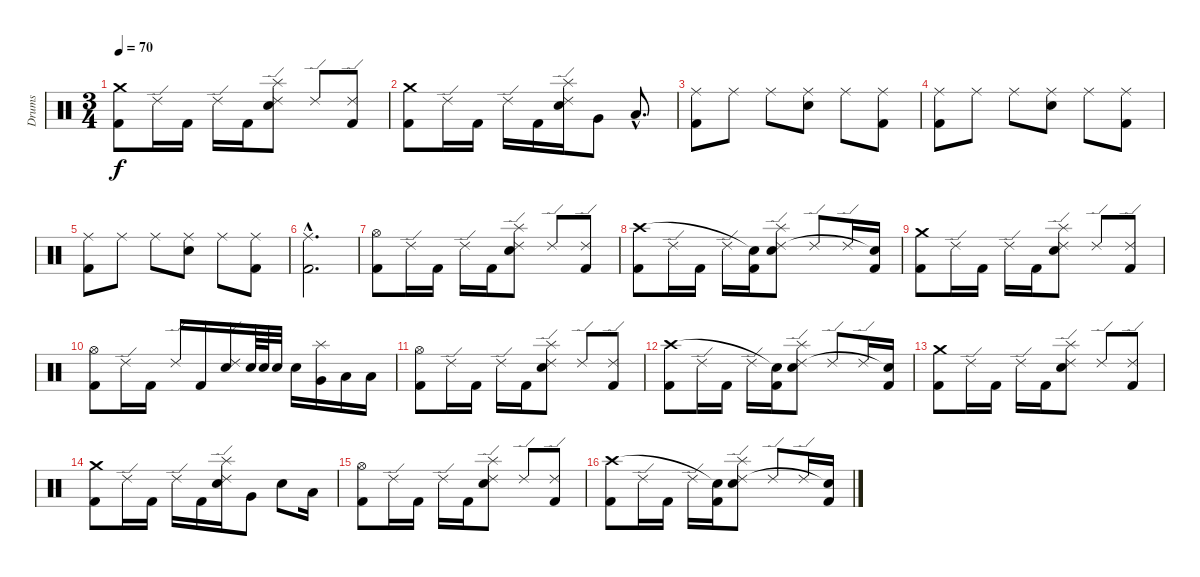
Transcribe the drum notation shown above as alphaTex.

\track ("Drums" "Drums") {instrument percussion}
\staff {score}
\articulation defaults
\ts (3 4)
\tempo 70
\clef neutral
\ks c
("Kick (hit) 2" "Crash medium (hit)").8{dy f} "Ride (edge) 2".16 "Kick (hit) 2".16 "Ride (edge) 2".16 "Kick (hit) 2".16 ("Snare (hit) 2" "Ride (edge) 2" "Splash (hit)").8 "Ride (edge) 2".8 ("Kick (hit) 2" "Ride (edge) 2").8 |
("Kick (hit) 2" "Crash medium (hit)").8 "Ride (edge) 2".16 "Kick (hit) 2".16 "Ride (edge) 2".16 "Kick (hit) 2".16 ("Snare (hit) 2" "Ride (edge) 2" "Splash (hit)").16 "Very Low Tom (hit)".8 "Low Floor Tom (hit)"{hac}.8{d} |
("Kick (hit) 2" "Ride (middle)").8 "Ride (middle)".8 "Ride (middle)".8 ("Snare (hit) 2" "Ride (middle)").8 "Ride (middle)".8 ("Kick (hit) 2" "Ride (middle)").8 |
("Kick (hit) 2" "Ride (middle)").8 "Ride (middle)".8 "Ride (middle)".8 ("Snare (hit) 2" "Ride (middle)").8 "Ride (middle)".8 ("Kick (hit) 2" "Ride (middle)").8 |
("Kick (hit) 2" "Ride (middle)").8 "Ride (middle)".8 "Ride (middle)".8 ("Snare (hit) 2" "Ride (middle)").8 "Ride (middle)".8 ("Kick (hit) 2" "Ride (middle)").8 |
("Kick (hit) 2"{hac} "Ride (middle)"{hac}).2{d} |
("Kick (hit) 2" "Hi-Hat (open)").8 "Ride (edge) 2".16 "Kick (hit) 2".16 "Ride (edge) 2".16 "Kick (hit) 2".16 ("Snare (hit) 2" "Ride (edge) 2" "Splash (hit)").8 "Ride (edge) 2".8 ("Kick (hit) 2" "Ride (edge) 2").8 |
("Kick (hit) 2" "Crash high (hit)").8 "Ride (edge) 2".16 "Kick (hit) 2".16 "Ride (edge) 2".16 ("Kick (hit) 2" "Snare (hit)"{t}).16 ("Snare (hit) 2" "Ride (edge) 2" "Splash (hit)").8 "Ride (edge) 2".8 "Ride (edge) 2".16 ("Kick (hit) 2" "Snare (hit)"{t}).16 |
("Kick (hit) 2" "Crash medium (hit)").8 "Ride (edge) 2".16 "Kick (hit) 2".16 "Ride (edge) 2".16 "Kick (hit) 2".16 ("Snare (hit) 2" "Ride (edge) 2" "Splash (hit)").8 "Ride (edge) 2".8 ("Kick (hit) 2" "Ride (edge) 2").8 |
("Kick (hit) 2" "Hi-Hat (open)").8 "Ride (edge) 2".16 "Kick (hit) 2".16 "Ride (edge) 2".16 "Kick (hit) 2".16 ("Snare (hit) 2" "Ride (edge) 2").16 "Snare (hit) 2".64 "Snare (hit) 2".64 "Snare (hit) 2".32 "Snare (hit) 2".16 ("Very Low Tom (hit)" "Splash (hit)").16 "Low Tom (hit)".16 "Low Floor Tom (hit)".16 |
("Kick (hit) 2" "Hi-Hat (open)").8 "Ride (edge) 2".16 "Kick (hit) 2".16 "Ride (edge) 2".16 "Kick (hit) 2".16 ("Snare (hit) 2" "Ride (edge) 2" "Splash (hit)").8 "Ride (edge) 2".8 ("Kick (hit) 2" "Ride (edge) 2").8 |
("Kick (hit) 2" "Crash high (hit)").8 "Ride (edge) 2".16 "Kick (hit) 2".16 "Ride (edge) 2".16 ("Kick (hit) 2" "Snare (hit)"{t}).16 ("Snare (hit) 2" "Ride (edge) 2" "Splash (hit)").8 "Ride (edge) 2".8 "Ride (edge) 2".16 ("Kick (hit) 2" "Snare (hit)"{t}).16 |
("Kick (hit) 2" "Crash medium (hit)").8 "Ride (edge) 2".16 "Kick (hit) 2".16 "Ride (edge) 2".16 "Kick (hit) 2".16 ("Snare (hit) 2" "Ride (edge) 2" "Splash (hit)").8 "Ride (edge) 2".8 ("Kick (hit) 2" "Ride (edge) 2").8 |
("Kick (hit) 2" "Crash medium (hit)").8 "Ride (edge) 2".16 "Kick (hit) 2".16 "Ride (edge) 2".16 "Kick (hit) 2".16 ("Snare (hit) 2" "Ride (edge) 2" "Splash (hit)").16 "Very Low Tom (hit)".8 "Snare (hit) 2".8 "Low Floor Tom (hit)".16 |
("Kick (hit) 2" "Hi-Hat (open)").8 "Ride (edge) 2".16 "Kick (hit) 2".16 "Ride (edge) 2".16 "Kick (hit) 2".16 ("Snare (hit) 2" "Ride (edge) 2" "Splash (hit)").8 "Ride (edge) 2".8 ("Kick (hit) 2" "Ride (edge) 2").8 |
("Kick (hit) 2" "Crash high (hit)").8 "Ride (edge) 2".16 "Kick (hit) 2".16 "Ride (edge) 2".16 ("Kick (hit) 2" "Snare (hit)"{t}).16 ("Snare (hit) 2" "Ride (edge) 2" "Splash (hit)").8 "Ride (edge) 2".8 "Ride (edge) 2".16 ("Kick (hit) 2" "Snare (hit)"{t}).16
